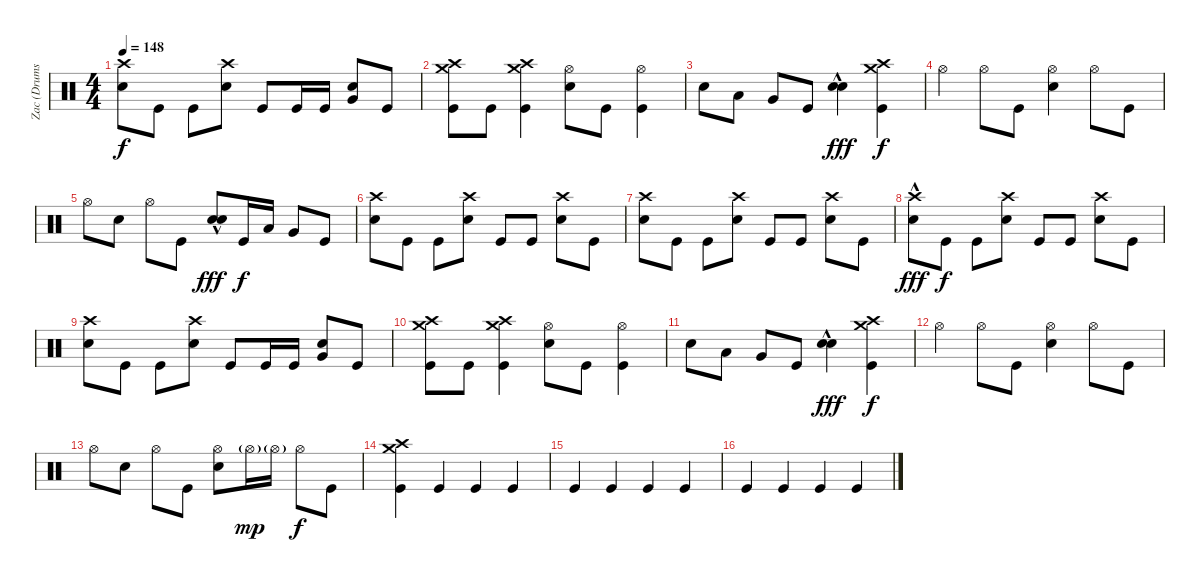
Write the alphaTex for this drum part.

\track ("Zac (Drums)" "Zac (Drums") {instrument percussion}
\staff {score}
\articulation defaults
\ts (4 4)
\tempo 148
\clef neutral
\ks c
("Crash high (hit)" "Electric Snare (hit)").8{dy f} "Kick (hit)".8 "Kick (hit)".8 ("Crash high (hit)" "Electric Snare (hit)").8 "Kick (hit)".8 "Kick (hit)".16 "Kick (hit)".16 ("Electric Snare (hit)" "Very Low Tom (hit)").8 "Kick (hit)".8 |
("Crash high (hit)" "Crash medium (hit)" "Kick (hit)").8 "Kick (hit)".8 ("Crash high (hit)" "Crash medium (hit)" "Kick (hit)").4 ("Hi-Hat (open)" "Electric Snare (hit)").8 "Kick (hit)".8 ("Hi-Hat (open)" "Kick (hit)").4 |
"Electric Snare (hit)".8 "Low Tom (hit)".8 "Very Low Tom (hit)".8 "Kick (hit)".8 ("Electric Snare (hit)"{hac} "Electric Snare (hit)"{hac}).4{dy fff} ("Crash high (hit)" "Crash medium (hit)" "Kick (hit)").4{dy f} |
"Hi-Hat (open)".4 "Hi-Hat (open)".8 "Kick (hit)".8 ("Hi-Hat (open)" "Electric Snare (hit)").4 "Hi-Hat (open)".8 "Kick (hit)".8 |
"Hi-Hat (open)".8 "Electric Snare (hit)".8 "Hi-Hat (open)".8 "Kick (hit)".8 ("Electric Snare (hit)"{hac} "Electric Snare (hit)"{hac}).8{dy fff} "Kick (hit)".16{dy f} "Low Tom (hit)".16 "Very Low Tom (hit)".8 "Kick (hit)".8 |
("Crash high (hit)" "Electric Snare (hit)").8 "Kick (hit)".8 "Kick (hit)".8 ("Crash high (hit)" "Electric Snare (hit)").8 "Kick (hit)".8 "Kick (hit)".8 ("Crash high (hit)" "Electric Snare (hit)").8 "Kick (hit)".8 |
("Crash high (hit)" "Electric Snare (hit)").8 "Kick (hit)".8 "Kick (hit)".8 ("Crash high (hit)" "Electric Snare (hit)").8 "Kick (hit)".8 "Kick (hit)".8 ("Crash high (hit)" "Electric Snare (hit)").8 "Kick (hit)".8 |
("Crash high (hit)"{hac} "Electric Snare (hit)").8{dy fff} "Kick (hit)".8{dy f} "Kick (hit)".8 ("Crash high (hit)" "Electric Snare (hit)").8 "Kick (hit)".8 "Kick (hit)".8 ("Crash high (hit)" "Electric Snare (hit)").8 "Kick (hit)".8 |
("Crash high (hit)" "Electric Snare (hit)").8 "Kick (hit)".8 "Kick (hit)".8 ("Crash high (hit)" "Electric Snare (hit)").8 "Kick (hit)".8 "Kick (hit)".16 "Kick (hit)".16 ("Electric Snare (hit)" "Very Low Tom (hit)").8 "Kick (hit)".8 |
("Crash high (hit)" "Crash medium (hit)" "Kick (hit)").8 "Kick (hit)".8 ("Crash high (hit)" "Crash medium (hit)" "Kick (hit)").4 ("Hi-Hat (open)" "Electric Snare (hit)").8 "Kick (hit)".8 ("Hi-Hat (open)" "Kick (hit)").4 |
"Electric Snare (hit)".8 "Low Tom (hit)".8 "Very Low Tom (hit)".8 "Kick (hit)".8 ("Electric Snare (hit)"{hac} "Electric Snare (hit)"{hac}).4{dy fff} ("Crash high (hit)" "Crash medium (hit)" "Kick (hit)").4{dy f} |
"Hi-Hat (open)".4 "Hi-Hat (open)".8 "Kick (hit)".8 ("Hi-Hat (open)" "Electric Snare (hit)").4 "Hi-Hat (open)".8 "Kick (hit)".8 |
"Hi-Hat (open)".8 "Electric Snare (hit)".8 "Hi-Hat (open)".8 "Kick (hit)".8 ("Hi-Hat (open)" "Electric Snare (hit)").8 "Hi-Hat (open)"{g}.16{dy mp} "Hi-Hat (open)"{g}.16 "Hi-Hat (open)".8{dy f} "Kick (hit)".8 |
("Crash high (hit)" "Crash medium (hit)" "Kick (hit)").4 "Kick (hit)".4 "Kick (hit)".4 "Kick (hit)".4 |
"Kick (hit)".4 "Kick (hit)".4 "Kick (hit)".4 "Kick (hit)".4 |
"Kick (hit)".4 "Kick (hit)".4 "Kick (hit)".4 "Kick (hit)".4
